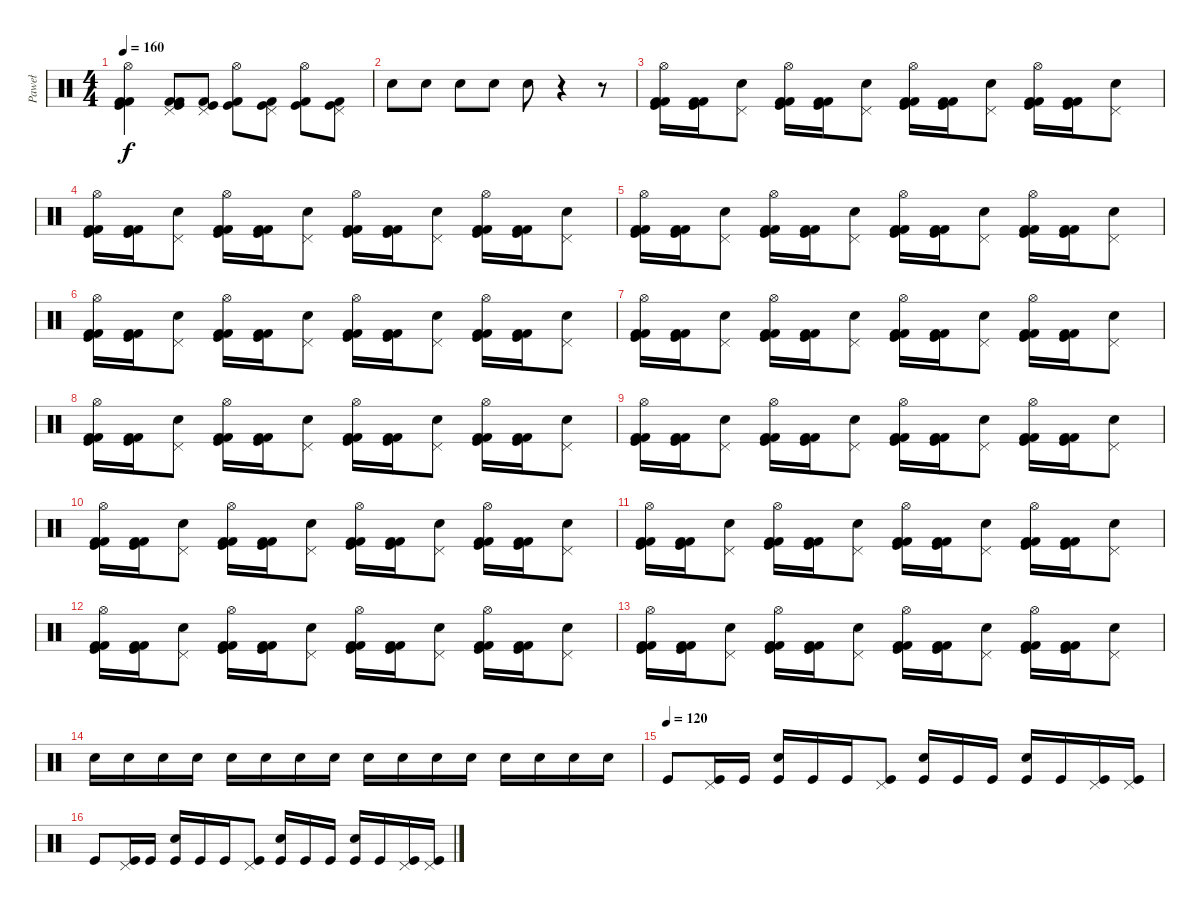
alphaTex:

\track ("Paweł" "Paweł") {instrument percussion}
\staff {score}
\articulation defaults
\ts (4 4)
\tempo 160
\clef neutral
\ks c
("Hi-Hat (open)" "Kick (hit) 2" "Kick (hit)" "Kick (hit) 2").4{dy f} ("Pedal Hi-Hat (hit)" "Kick (hit) 2" "Kick (hit)" "Kick (hit) 2").8 ("Pedal Hi-Hat (hit)" "Kick (hit)" "Kick (hit) 2").8 ("Hi-Hat (open)" "Kick (hit)" "Kick (hit) 2").8 ("Pedal Hi-Hat (hit)" "Kick (hit)" "Kick (hit) 2").8 ("Hi-Hat (open)" "Kick (hit)" "Kick (hit) 2").8 ("Pedal Hi-Hat (hit)" "Kick (hit)" "Kick (hit) 2").8 |
"Snare (hit) 2".8 "Snare (hit) 2".8 "Snare (hit) 2".8 "Snare (hit) 2".8 "Snare (hit) 2".8 r.4 r.8 |
("Kick (hit) 2" "Hi-Hat (open)" "Kick (hit)" "Kick (hit) 2").16 ("Kick (hit) 2" "Kick (hit)" "Kick (hit) 2").16 ("Pedal Hi-Hat (hit)" "Snare (hit) 2").8 ("Kick (hit) 2" "Hi-Hat (open)" "Kick (hit)" "Kick (hit) 2").16 ("Kick (hit) 2" "Kick (hit)" "Kick (hit) 2").16 ("Pedal Hi-Hat (hit)" "Snare (hit) 2").8 ("Kick (hit) 2" "Hi-Hat (open)" "Kick (hit)" "Kick (hit) 2").16 ("Kick (hit) 2" "Kick (hit)" "Kick (hit) 2").16 ("Pedal Hi-Hat (hit)" "Snare (hit) 2").8 ("Kick (hit) 2" "Hi-Hat (open)" "Kick (hit)" "Kick (hit) 2").16 ("Kick (hit) 2" "Kick (hit)" "Kick (hit) 2").16 ("Pedal Hi-Hat (hit)" "Snare (hit) 2").8 |
("Kick (hit) 2" "Hi-Hat (open)" "Kick (hit)" "Kick (hit) 2").16 ("Kick (hit) 2" "Kick (hit)" "Kick (hit) 2").16 ("Pedal Hi-Hat (hit)" "Snare (hit) 2").8 ("Kick (hit) 2" "Hi-Hat (open)" "Kick (hit)" "Kick (hit) 2").16 ("Kick (hit) 2" "Kick (hit)" "Kick (hit) 2").16 ("Pedal Hi-Hat (hit)" "Snare (hit) 2").8 ("Kick (hit) 2" "Hi-Hat (open)" "Kick (hit)" "Kick (hit) 2").16 ("Kick (hit) 2" "Kick (hit)" "Kick (hit) 2").16 ("Pedal Hi-Hat (hit)" "Snare (hit) 2").8 ("Kick (hit) 2" "Hi-Hat (open)" "Kick (hit)" "Kick (hit) 2").16 ("Kick (hit) 2" "Kick (hit)" "Kick (hit) 2").16 ("Pedal Hi-Hat (hit)" "Snare (hit) 2").8 |
("Kick (hit) 2" "Hi-Hat (open)" "Kick (hit)" "Kick (hit) 2").16 ("Kick (hit) 2" "Kick (hit)" "Kick (hit) 2").16 ("Pedal Hi-Hat (hit)" "Snare (hit) 2").8 ("Kick (hit) 2" "Hi-Hat (open)" "Kick (hit)" "Kick (hit) 2").16 ("Kick (hit) 2" "Kick (hit)" "Kick (hit) 2").16 ("Pedal Hi-Hat (hit)" "Snare (hit) 2").8 ("Kick (hit) 2" "Hi-Hat (open)" "Kick (hit)" "Kick (hit) 2").16 ("Kick (hit) 2" "Kick (hit)" "Kick (hit) 2").16 ("Pedal Hi-Hat (hit)" "Snare (hit) 2").8 ("Kick (hit) 2" "Hi-Hat (open)" "Kick (hit)" "Kick (hit) 2").16 ("Kick (hit) 2" "Kick (hit)" "Kick (hit) 2").16 ("Pedal Hi-Hat (hit)" "Snare (hit) 2").8 |
("Kick (hit) 2" "Hi-Hat (open)" "Kick (hit)" "Kick (hit) 2").16 ("Kick (hit) 2" "Kick (hit)" "Kick (hit) 2").16 ("Pedal Hi-Hat (hit)" "Snare (hit) 2").8 ("Kick (hit) 2" "Hi-Hat (open)" "Kick (hit)" "Kick (hit) 2").16 ("Kick (hit) 2" "Kick (hit)" "Kick (hit) 2").16 ("Pedal Hi-Hat (hit)" "Snare (hit) 2").8 ("Kick (hit) 2" "Hi-Hat (open)" "Kick (hit)" "Kick (hit) 2").16 ("Kick (hit) 2" "Kick (hit)" "Kick (hit) 2").16 ("Pedal Hi-Hat (hit)" "Snare (hit) 2").8 ("Kick (hit) 2" "Hi-Hat (open)" "Kick (hit)" "Kick (hit) 2").16 ("Kick (hit) 2" "Kick (hit)" "Kick (hit) 2").16 ("Pedal Hi-Hat (hit)" "Snare (hit) 2").8 |
("Kick (hit) 2" "Hi-Hat (open)" "Kick (hit)" "Kick (hit) 2").16 ("Kick (hit) 2" "Kick (hit)" "Kick (hit) 2").16 ("Pedal Hi-Hat (hit)" "Snare (hit) 2").8 ("Kick (hit) 2" "Hi-Hat (open)" "Kick (hit)" "Kick (hit) 2").16 ("Kick (hit) 2" "Kick (hit)" "Kick (hit) 2").16 ("Pedal Hi-Hat (hit)" "Snare (hit) 2").8 ("Kick (hit) 2" "Hi-Hat (open)" "Kick (hit)" "Kick (hit) 2").16 ("Kick (hit) 2" "Kick (hit)" "Kick (hit) 2").16 ("Pedal Hi-Hat (hit)" "Snare (hit) 2").8 ("Kick (hit) 2" "Hi-Hat (open)" "Kick (hit)" "Kick (hit) 2").16 ("Kick (hit) 2" "Kick (hit)" "Kick (hit) 2").16 ("Pedal Hi-Hat (hit)" "Snare (hit) 2").8 |
("Kick (hit) 2" "Hi-Hat (open)" "Kick (hit)" "Kick (hit) 2").16 ("Kick (hit) 2" "Kick (hit)" "Kick (hit) 2").16 ("Pedal Hi-Hat (hit)" "Snare (hit) 2").8 ("Kick (hit) 2" "Hi-Hat (open)" "Kick (hit)" "Kick (hit) 2").16 ("Kick (hit) 2" "Kick (hit)" "Kick (hit) 2").16 ("Pedal Hi-Hat (hit)" "Snare (hit) 2").8 ("Kick (hit) 2" "Hi-Hat (open)" "Kick (hit)" "Kick (hit) 2").16 ("Kick (hit) 2" "Kick (hit)" "Kick (hit) 2").16 ("Pedal Hi-Hat (hit)" "Snare (hit) 2").8 ("Kick (hit) 2" "Hi-Hat (open)" "Kick (hit)" "Kick (hit) 2").16 ("Kick (hit) 2" "Kick (hit)" "Kick (hit) 2").16 ("Pedal Hi-Hat (hit)" "Snare (hit) 2").8 |
("Kick (hit) 2" "Hi-Hat (open)" "Kick (hit)" "Kick (hit) 2").16 ("Kick (hit) 2" "Kick (hit)" "Kick (hit) 2").16 ("Pedal Hi-Hat (hit)" "Snare (hit) 2").8 ("Kick (hit) 2" "Hi-Hat (open)" "Kick (hit)" "Kick (hit) 2").16 ("Kick (hit) 2" "Kick (hit)" "Kick (hit) 2").16 ("Pedal Hi-Hat (hit)" "Snare (hit) 2").8 ("Kick (hit) 2" "Hi-Hat (open)" "Kick (hit)" "Kick (hit) 2").16 ("Kick (hit) 2" "Kick (hit)" "Kick (hit) 2").16 ("Pedal Hi-Hat (hit)" "Snare (hit) 2").8 ("Kick (hit) 2" "Hi-Hat (open)" "Kick (hit)" "Kick (hit) 2").16 ("Kick (hit) 2" "Kick (hit)" "Kick (hit) 2").16 ("Pedal Hi-Hat (hit)" "Snare (hit) 2").8 |
("Kick (hit) 2" "Hi-Hat (open)" "Kick (hit)" "Kick (hit) 2").16 ("Kick (hit) 2" "Kick (hit)" "Kick (hit) 2").16 ("Pedal Hi-Hat (hit)" "Snare (hit) 2").8 ("Kick (hit) 2" "Hi-Hat (open)" "Kick (hit)" "Kick (hit) 2").16 ("Kick (hit) 2" "Kick (hit)" "Kick (hit) 2").16 ("Pedal Hi-Hat (hit)" "Snare (hit) 2").8 ("Kick (hit) 2" "Hi-Hat (open)" "Kick (hit)" "Kick (hit) 2").16 ("Kick (hit) 2" "Kick (hit)" "Kick (hit) 2").16 ("Pedal Hi-Hat (hit)" "Snare (hit) 2").8 ("Kick (hit) 2" "Hi-Hat (open)" "Kick (hit)" "Kick (hit) 2").16 ("Kick (hit) 2" "Kick (hit)" "Kick (hit) 2").16 ("Pedal Hi-Hat (hit)" "Snare (hit) 2").8 |
("Kick (hit) 2" "Hi-Hat (open)" "Kick (hit)" "Kick (hit) 2").16 ("Kick (hit) 2" "Kick (hit)" "Kick (hit) 2").16 ("Pedal Hi-Hat (hit)" "Snare (hit) 2").8 ("Kick (hit) 2" "Hi-Hat (open)" "Kick (hit)" "Kick (hit) 2").16 ("Kick (hit) 2" "Kick (hit)" "Kick (hit) 2").16 ("Pedal Hi-Hat (hit)" "Snare (hit) 2").8 ("Kick (hit) 2" "Hi-Hat (open)" "Kick (hit)" "Kick (hit) 2").16 ("Kick (hit) 2" "Kick (hit)" "Kick (hit) 2").16 ("Pedal Hi-Hat (hit)" "Snare (hit) 2").8 ("Kick (hit) 2" "Hi-Hat (open)" "Kick (hit)" "Kick (hit) 2").16 ("Kick (hit) 2" "Kick (hit)" "Kick (hit) 2").16 ("Pedal Hi-Hat (hit)" "Snare (hit) 2").8 |
("Kick (hit) 2" "Hi-Hat (open)" "Kick (hit)" "Kick (hit) 2").16 ("Kick (hit) 2" "Kick (hit)" "Kick (hit) 2").16 ("Pedal Hi-Hat (hit)" "Snare (hit) 2").8 ("Kick (hit) 2" "Hi-Hat (open)" "Kick (hit)" "Kick (hit) 2").16 ("Kick (hit) 2" "Kick (hit)" "Kick (hit) 2").16 ("Pedal Hi-Hat (hit)" "Snare (hit) 2").8 ("Kick (hit) 2" "Hi-Hat (open)" "Kick (hit)" "Kick (hit) 2").16 ("Kick (hit) 2" "Kick (hit)" "Kick (hit) 2").16 ("Pedal Hi-Hat (hit)" "Snare (hit) 2").8 ("Kick (hit) 2" "Hi-Hat (open)" "Kick (hit)" "Kick (hit) 2").16 ("Kick (hit) 2" "Kick (hit)" "Kick (hit) 2").16 ("Pedal Hi-Hat (hit)" "Snare (hit) 2").8 |
("Kick (hit) 2" "Hi-Hat (open)" "Kick (hit)" "Kick (hit) 2").16 ("Kick (hit) 2" "Kick (hit)" "Kick (hit) 2").16 ("Pedal Hi-Hat (hit)" "Snare (hit) 2").8 ("Kick (hit) 2" "Hi-Hat (open)" "Kick (hit)" "Kick (hit) 2").16 ("Kick (hit) 2" "Kick (hit)" "Kick (hit) 2").16 ("Pedal Hi-Hat (hit)" "Snare (hit) 2").8 ("Kick (hit) 2" "Hi-Hat (open)" "Kick (hit)" "Kick (hit) 2").16 ("Kick (hit) 2" "Kick (hit)" "Kick (hit) 2").16 ("Pedal Hi-Hat (hit)" "Snare (hit) 2").8 ("Kick (hit) 2" "Hi-Hat (open)" "Kick (hit)" "Kick (hit) 2").16 ("Kick (hit) 2" "Kick (hit)" "Kick (hit) 2").16 ("Pedal Hi-Hat (hit)" "Snare (hit) 2").8 |
"Snare (hit) 2".16 "Snare (hit) 2".16 "Snare (hit) 2".16 "Snare (hit) 2".16 "Snare (hit) 2".16 "Snare (hit) 2".16 "Snare (hit) 2".16 "Snare (hit) 2".16 "Snare (hit) 2".16 "Snare (hit) 2".16 "Snare (hit) 2".16 "Snare (hit) 2".16 "Snare (hit) 2".16 "Snare (hit) 2".16 "Snare (hit) 2".16 "Snare (hit) 2".16 |
\tempo (120)
"Kick (hit)".8 ("Pedal Hi-Hat (hit)" "Kick (hit)").16 "Kick (hit)".16 ("Snare (hit) 2" "Kick (hit)").16 "Kick (hit)".16 "Kick (hit)".16 ("Pedal Hi-Hat (hit)" "Kick (hit)").8 ("Snare (hit) 2" "Kick (hit)").16 "Kick (hit)".16 "Kick (hit)".16 ("Snare (hit) 2" "Kick (hit)").16 "Kick (hit)".16 ("Pedal Hi-Hat (hit)" "Kick (hit)").16 ("Pedal Hi-Hat (hit)" "Kick (hit)").16 |
"Kick (hit)".8 ("Pedal Hi-Hat (hit)" "Kick (hit)").16 "Kick (hit)".16 ("Snare (hit) 2" "Kick (hit)").16 "Kick (hit)".16 "Kick (hit)".16 ("Pedal Hi-Hat (hit)" "Kick (hit)").8 ("Snare (hit) 2" "Kick (hit)").16 "Kick (hit)".16 "Kick (hit)".16 ("Snare (hit) 2" "Kick (hit)").16 "Kick (hit)".16 ("Pedal Hi-Hat (hit)" "Kick (hit)").16 ("Pedal Hi-Hat (hit)" "Kick (hit)").16
